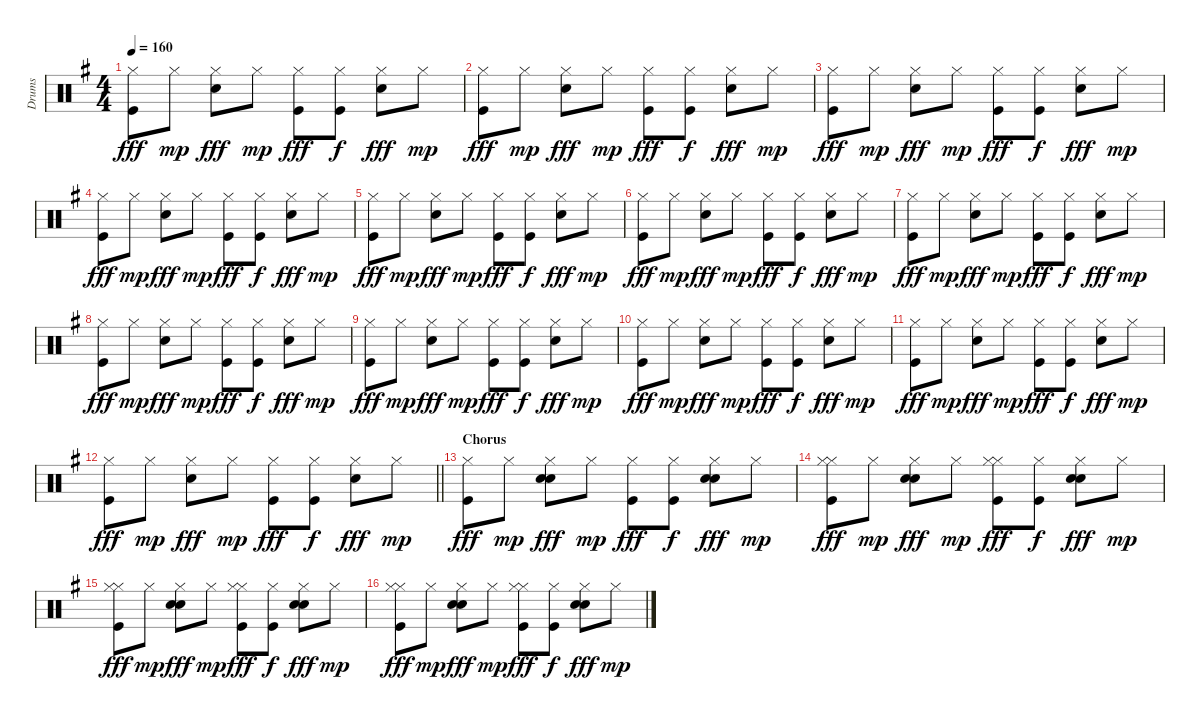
\track ("Drums" "Drums") {instrument percussion}
\staff {score}
\articulation defaults
\ts (4 4)
\tempo 160
\clef neutral
\ks g
("Hi-Hat (closed)" "Kick (hit)").8{dy fff} "Hi-Hat (closed)".8{dy mp} ("Snare (hit) 2" "Hi-Hat (closed)").8{dy fff} "Hi-Hat (closed)".8{dy mp} ("Hi-Hat (closed)" "Kick (hit)").8{dy fff} ("Hi-Hat (closed)" "Kick (hit)").8{dy f} ("Snare (hit) 2" "Hi-Hat (closed)").8{dy fff} "Hi-Hat (closed)".8{dy mp} |
("Hi-Hat (closed)" "Kick (hit)").8{dy fff} "Hi-Hat (closed)".8{dy mp} ("Snare (hit) 2" "Hi-Hat (closed)").8{dy fff} "Hi-Hat (closed)".8{dy mp} ("Hi-Hat (closed)" "Kick (hit)").8{dy fff} ("Hi-Hat (closed)" "Kick (hit)").8{dy f} ("Snare (hit) 2" "Hi-Hat (closed)").8{dy fff} "Hi-Hat (closed)".8{dy mp} |
("Hi-Hat (closed)" "Kick (hit)").8{dy fff} "Hi-Hat (closed)".8{dy mp} ("Snare (hit) 2" "Hi-Hat (closed)").8{dy fff} "Hi-Hat (closed)".8{dy mp} ("Hi-Hat (closed)" "Kick (hit)").8{dy fff} ("Hi-Hat (closed)" "Kick (hit)").8{dy f} ("Snare (hit) 2" "Hi-Hat (closed)").8{dy fff} "Hi-Hat (closed)".8{dy mp} |
("Hi-Hat (closed)" "Kick (hit)").8{dy fff} "Hi-Hat (closed)".8{dy mp} ("Snare (hit) 2" "Hi-Hat (closed)").8{dy fff} "Hi-Hat (closed)".8{dy mp} ("Hi-Hat (closed)" "Kick (hit)").8{dy fff} ("Hi-Hat (closed)" "Kick (hit)").8{dy f} ("Snare (hit) 2" "Hi-Hat (closed)").8{dy fff} "Hi-Hat (closed)".8{dy mp} |
("Hi-Hat (closed)" "Kick (hit)").8{dy fff} "Hi-Hat (closed)".8{dy mp} ("Snare (hit) 2" "Hi-Hat (closed)").8{dy fff} "Hi-Hat (closed)".8{dy mp} ("Hi-Hat (closed)" "Kick (hit)").8{dy fff} ("Hi-Hat (closed)" "Kick (hit)").8{dy f} ("Snare (hit) 2" "Hi-Hat (closed)").8{dy fff} "Hi-Hat (closed)".8{dy mp} |
("Hi-Hat (closed)" "Kick (hit)").8{dy fff} "Hi-Hat (closed)".8{dy mp} ("Snare (hit) 2" "Hi-Hat (closed)").8{dy fff} "Hi-Hat (closed)".8{dy mp} ("Hi-Hat (closed)" "Kick (hit)").8{dy fff} ("Hi-Hat (closed)" "Kick (hit)").8{dy f} ("Snare (hit) 2" "Hi-Hat (closed)").8{dy fff} "Hi-Hat (closed)".8{dy mp} |
("Hi-Hat (closed)" "Kick (hit)").8{dy fff} "Hi-Hat (closed)".8{dy mp} ("Snare (hit) 2" "Hi-Hat (closed)").8{dy fff} "Hi-Hat (closed)".8{dy mp} ("Hi-Hat (closed)" "Kick (hit)").8{dy fff} ("Hi-Hat (closed)" "Kick (hit)").8{dy f} ("Snare (hit) 2" "Hi-Hat (closed)").8{dy fff} "Hi-Hat (closed)".8{dy mp} |
("Hi-Hat (closed)" "Kick (hit)").8{dy fff} "Hi-Hat (closed)".8{dy mp} ("Snare (hit) 2" "Hi-Hat (closed)").8{dy fff} "Hi-Hat (closed)".8{dy mp} ("Hi-Hat (closed)" "Kick (hit)").8{dy fff} ("Hi-Hat (closed)" "Kick (hit)").8{dy f} ("Snare (hit) 2" "Hi-Hat (closed)").8{dy fff} "Hi-Hat (closed)".8{dy mp} |
("Hi-Hat (closed)" "Kick (hit)").8{dy fff} "Hi-Hat (closed)".8{dy mp} ("Snare (hit) 2" "Hi-Hat (closed)").8{dy fff} "Hi-Hat (closed)".8{dy mp} ("Hi-Hat (closed)" "Kick (hit)").8{dy fff} ("Hi-Hat (closed)" "Kick (hit)").8{dy f} ("Snare (hit) 2" "Hi-Hat (closed)").8{dy fff} "Hi-Hat (closed)".8{dy mp} |
("Hi-Hat (closed)" "Kick (hit)").8{dy fff} "Hi-Hat (closed)".8{dy mp} ("Snare (hit) 2" "Hi-Hat (closed)").8{dy fff} "Hi-Hat (closed)".8{dy mp} ("Hi-Hat (closed)" "Kick (hit)").8{dy fff} ("Hi-Hat (closed)" "Kick (hit)").8{dy f} ("Snare (hit) 2" "Hi-Hat (closed)").8{dy fff} "Hi-Hat (closed)".8{dy mp} |
("Hi-Hat (closed)" "Kick (hit)").8{dy fff} "Hi-Hat (closed)".8{dy mp} ("Snare (hit) 2" "Hi-Hat (closed)").8{dy fff} "Hi-Hat (closed)".8{dy mp} ("Hi-Hat (closed)" "Kick (hit)").8{dy fff} ("Hi-Hat (closed)" "Kick (hit)").8{dy f} ("Snare (hit) 2" "Hi-Hat (closed)").8{dy fff} "Hi-Hat (closed)".8{dy mp} |
\barLineRight lightlight
("Hi-Hat (closed)" "Kick (hit)").8{dy fff} "Hi-Hat (closed)".8{dy mp} ("Snare (hit) 2" "Hi-Hat (closed)").8{dy fff} "Hi-Hat (closed)".8{dy mp} ("Hi-Hat (closed)" "Kick (hit)").8{dy fff} ("Hi-Hat (closed)" "Kick (hit)").8{dy f} ("Snare (hit) 2" "Hi-Hat (closed)").8{dy fff} "Hi-Hat (closed)".8{dy mp} |
\section ("" "Chorus")
("Hi-Hat (closed)" "Kick (hit)").8{dy fff} "Hi-Hat (closed)".8{dy mp} ("Snare (hit) 2" "Hi-Hat (closed)" "Electric Snare (hit)").8{dy fff} "Hi-Hat (closed)".8{dy mp} ("Hi-Hat (closed)" "Kick (hit)").8{dy fff} ("Hi-Hat (closed)" "Kick (hit)").8{dy f} ("Snare (hit) 2" "Hi-Hat (closed)" "Electric Snare (hit)").8{dy fff} "Hi-Hat (closed)".8{dy mp} |
("Hi-Hat (closed)" "Kick (hit)" "Hi-Hat (closed)").8{dy fff} "Hi-Hat (closed)".8{dy mp} ("Snare (hit) 2" "Hi-Hat (closed)" "Electric Snare (hit)").8{dy fff} "Hi-Hat (closed)".8{dy mp} ("Hi-Hat (closed)" "Kick (hit)" "Hi-Hat (closed)").8{dy fff} ("Hi-Hat (closed)" "Kick (hit)").8{dy f} ("Snare (hit) 2" "Hi-Hat (closed)" "Electric Snare (hit)").8{dy fff} "Hi-Hat (closed)".8{dy mp} |
("Hi-Hat (closed)" "Kick (hit)" "Hi-Hat (closed)").8{dy fff} "Hi-Hat (closed)".8{dy mp} ("Snare (hit) 2" "Hi-Hat (closed)" "Electric Snare (hit)").8{dy fff} "Hi-Hat (closed)".8{dy mp} ("Hi-Hat (closed)" "Kick (hit)" "Hi-Hat (closed)").8{dy fff} ("Hi-Hat (closed)" "Kick (hit)").8{dy f} ("Snare (hit) 2" "Hi-Hat (closed)" "Electric Snare (hit)").8{dy fff} "Hi-Hat (closed)".8{dy mp} |
("Hi-Hat (closed)" "Kick (hit)" "Hi-Hat (closed)").8{dy fff} "Hi-Hat (closed)".8{dy mp} ("Snare (hit) 2" "Hi-Hat (closed)" "Electric Snare (hit)").8{dy fff} "Hi-Hat (closed)".8{dy mp} ("Hi-Hat (closed)" "Kick (hit)" "Hi-Hat (closed)").8{dy fff} ("Hi-Hat (closed)" "Kick (hit)").8{dy f} ("Snare (hit) 2" "Hi-Hat (closed)" "Electric Snare (hit)").8{dy fff} "Hi-Hat (closed)".8{dy mp}
